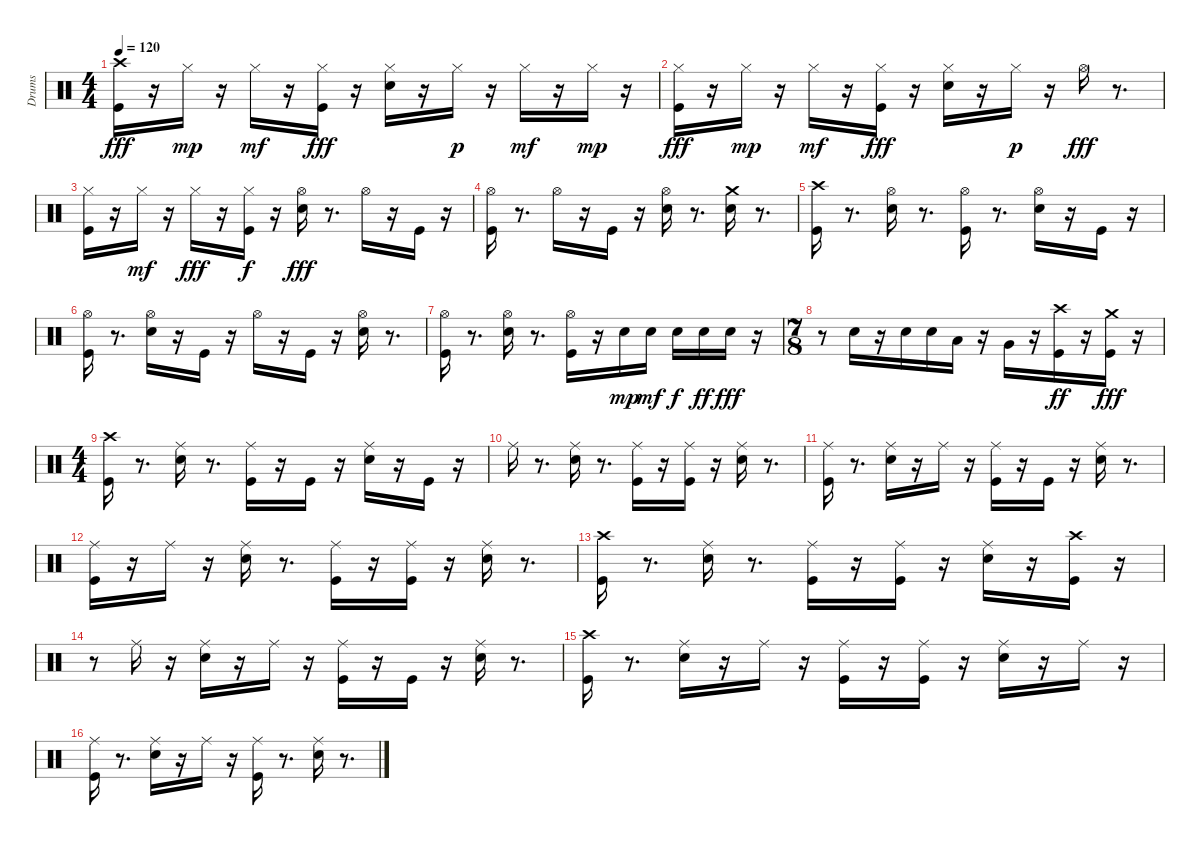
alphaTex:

\track ("Drums" "Drums") {instrument percussion}
\staff {score}
\articulation defaults
\ts (4 4)
\tempo 120
\clef neutral
\ks c
("Crash high (hit)" "Kick (hit)").16{dy fff} r.16 "Hi-Hat (closed)".16{dy mp} r.16 "Hi-Hat (closed)".16{dy mf} r.16 ("Hi-Hat (closed)" "Kick (hit)").16{dy fff} r.16 ("Hi-Hat (closed)" "Snare (hit) 2").16 r.16 "Hi-Hat (closed)".16{dy p} r.16 "Hi-Hat (closed)".16{dy mf} r.16 "Hi-Hat (closed)".16{dy mp} r.16 |
("Hi-Hat (closed)" "Kick (hit)").16{dy fff} r.16 "Hi-Hat (closed)".16{dy mp} r.16 "Hi-Hat (closed)".16{dy mf} r.16 ("Hi-Hat (closed)" "Kick (hit)").16{dy fff} r.16 ("Hi-Hat (closed)" "Snare (hit) 2").16 r.16 "Hi-Hat (closed)".16{dy p} r.16 "Hi-Hat (open)".16{dy fff} r.8{d} |
("Kick (hit)" "Hi-Hat (closed)").16 r.16 "Hi-Hat (closed)".16{dy mf} r.16 "Hi-Hat (closed)".16{dy fff} r.16 ("Hi-Hat (closed)" "Kick (hit)").16{dy f} r.16 ("Hi-Hat (open)" "Snare (hit) 2").16{dy fff} r.8{d} "Hi-Hat (open)".16 r.16 "Kick (hit)".16 r.16 |
("Hi-Hat (open)" "Kick (hit)").16 r.8{d} "Hi-Hat (open)".16 r.16 "Kick (hit)".16 r.16 ("Hi-Hat (open)" "Snare (hit) 2").16 r.8{d} ("Crash medium (hit)" "Snare (hit) 2").16 r.8{d} |
("Kick (hit)" "Crash high (hit)").16 r.8{d} ("Hi-Hat (open)" "Snare (hit) 2").16 r.8{d} ("Hi-Hat (open)" "Kick (hit)").16 r.8{d} ("Hi-Hat (open)" "Snare (hit) 2").16 r.16 "Kick (hit)".16 r.16 |
("Hi-Hat (open)" "Kick (hit)").16 r.8{d} ("Hi-Hat (open)" "Snare (hit) 2").16 r.16 "Kick (hit)".16 r.16 "Hi-Hat (open)".16 r.16 "Kick (hit)".16 r.16 ("Hi-Hat (open)" "Snare (hit) 2").16 r.8{d} |
("Hi-Hat (open)" "Kick (hit)").16 r.8{d} ("Snare (hit) 2" "Hi-Hat (open)").16 r.8{d} ("Kick (hit)" "Hi-Hat (open)").16{volume 11} r.16 "Snare (hit) 2".16{dy mp volume 12} "Snare (hit) 2".16{dy mf volume 12} "Snare (hit) 2".16{dy f volume 13} "Snare (hit) 2".16{dy ff volume 13} "Snare (hit) 2".16{dy fff} r.16 |
\ts (7 8)
r.8 "Snare (hit) 2".16 r.16 "Snare (hit) 2".16 "Snare (hit) 2".16 "Low Tom (hit)".16 r.16 "Very Low Tom (hit)".16 r.16 ("Kick (hit)" "Crash high (hit)").16{dy ff} r.16 ("Kick (hit)" "Crash medium (hit)").16{dy fff} r.16 |
\ts (4 4)
("Kick (hit)" "Crash high (hit)").16{volume 11} r.8{d} ("Snare (hit) 2" "Ride (middle)").16 r.8{d} ("Kick (hit)" "Ride (middle)").16 r.16 "Kick (hit)".16 r.16 ("Snare (hit) 2" "Ride (middle)").16 r.16 "Kick (hit)".16 r.16 |
"Ride (middle)".16 r.8{d} ("Snare (hit) 2" "Ride (middle)").16 r.8{d} ("Kick (hit)" "Ride (middle)").16 r.16 ("Kick (hit)" "Ride (middle)").16 r.16 ("Snare (hit) 2" "Ride (middle)").16 r.8{d} |
("Kick (hit)" "Ride (middle)").16 r.8{d} ("Snare (hit) 2" "Ride (middle)").16 r.16 "Ride (middle)".16 r.16 ("Kick (hit)" "Ride (middle)").16 r.16 "Kick (hit)".16 r.16 ("Snare (hit) 2" "Ride (middle)").16 r.8{d} |
("Kick (hit)" "Ride (middle)").16 r.16 "Ride (middle)".16 r.16 ("Snare (hit) 2" "Ride (middle)").16 r.8{d} ("Kick (hit)" "Ride (middle)").16 r.16 ("Ride (middle)" "Kick (hit)").16 r.16 ("Snare (hit) 2" "Ride (middle)").16 r.8{d} |
("Crash high (hit)" "Kick (hit)").16 r.8{d} ("Snare (hit) 2" "Ride (middle)").16 r.8{d} ("Kick (hit)" "Ride (middle)").16 r.16 ("Ride (middle)" "Kick (hit)").16 r.16 ("Snare (hit) 2" "Ride (middle)").16 r.16 ("Crash high (hit)" "Kick (hit)").16 r.16 |
r.8 "Ride (middle)".16 r.16 ("Ride (middle)" "Snare (hit) 2").16 r.16 "Ride (middle)".16 r.16 ("Ride (middle)" "Kick (hit)").16 r.16 "Kick (hit)".16 r.16 ("Ride (middle)" "Snare (hit) 2").16 r.8{d} |
("Crash high (hit)" "Kick (hit)").16 r.8{d} ("Ride (middle)" "Snare (hit) 2").16 r.16 "Ride (middle)".16 r.16 ("Ride (middle)" "Kick (hit)").16 r.16 ("Ride (middle)" "Kick (hit)").16 r.16 ("Ride (middle)" "Snare (hit) 2").16 r.16 "Ride (middle)".16 r.16 |
("Ride (middle)" "Kick (hit)").16 r.8{d} ("Snare (hit) 2" "Ride (middle)").16 r.16 "Ride (middle)".16 r.16 ("Kick (hit)" "Ride (middle)").16 r.8{d} ("Snare (hit) 2" "Ride (middle)").16 r.8{d}
